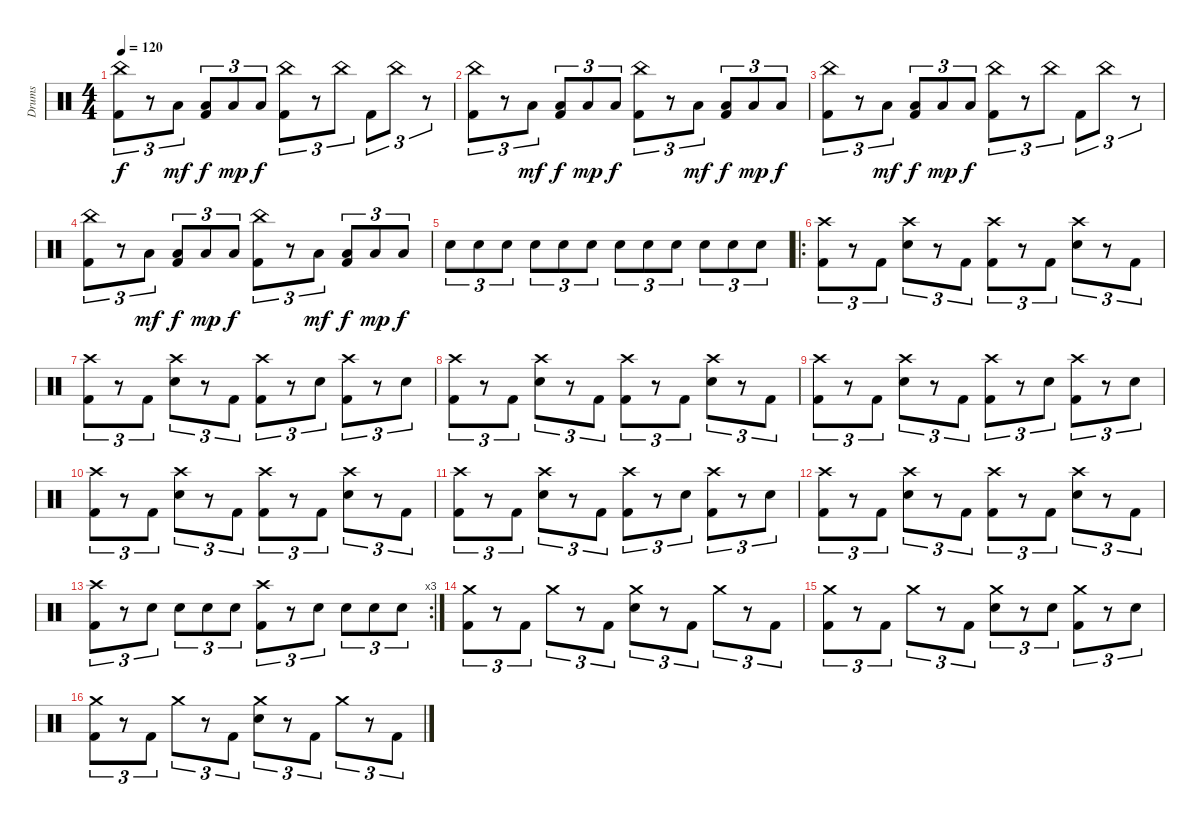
\track ("Drums" "Drums") {instrument percussion}
\staff {score}
\articulation defaults
\ts (4 4)
\tempo 120
\clef neutral
\ks c
("Kick (hit) 2" "China (hit)").8{tu (3 2) dy f} r.8{tu (3 2)} "Low Tom (hit)".8{tu (3 2) dy mf} ("Kick (hit) 2" "Low Tom (hit)").8{tu (3 2) dy f} "Low Tom (hit)".8{tu (3 2) dy mp} "Low Tom (hit)".8{tu (3 2) dy f} ("Kick (hit) 2" "China (hit)").8{tu (3 2)} r.8{tu (3 2)} "China (hit)".8{tu (3 2)} "Kick (hit) 2".8{tu (3 2)} "China (hit)".8{tu (3 2)} r.8{tu (3 2)} |
("Kick (hit) 2" "China (hit)").8{tu (3 2)} r.8{tu (3 2)} "Low Tom (hit)".8{tu (3 2) dy mf} ("Kick (hit) 2" "Low Tom (hit)").8{tu (3 2) dy f} "Low Tom (hit)".8{tu (3 2) dy mp} "Low Tom (hit)".8{tu (3 2) dy f} ("Kick (hit) 2" "China (hit)").8{tu (3 2)} r.8{tu (3 2)} "Low Tom (hit)".8{tu (3 2) dy mf} ("Kick (hit) 2" "Low Tom (hit)").8{tu (3 2) dy f} "Low Tom (hit)".8{tu (3 2) dy mp} "Low Tom (hit)".8{tu (3 2) dy f} |
("Kick (hit) 2" "China (hit)").8{tu (3 2)} r.8{tu (3 2)} "Low Tom (hit)".8{tu (3 2) dy mf} ("Kick (hit) 2" "Low Tom (hit)").8{tu (3 2) dy f} "Low Tom (hit)".8{tu (3 2) dy mp} "Low Tom (hit)".8{tu (3 2) dy f} ("Kick (hit) 2" "China (hit)").8{tu (3 2)} r.8{tu (3 2)} "China (hit)".8{tu (3 2)} "Kick (hit) 2".8{tu (3 2)} "China (hit)".8{tu (3 2)} r.8{tu (3 2)} |
("Kick (hit) 2" "China (hit)").8{tu (3 2)} r.8{tu (3 2)} "Low Tom (hit)".8{tu (3 2) dy mf} ("Kick (hit) 2" "Low Tom (hit)").8{tu (3 2) dy f} "Low Tom (hit)".8{tu (3 2) dy mp} "Low Tom (hit)".8{tu (3 2) dy f} ("Kick (hit) 2" "China (hit)").8{tu (3 2)} r.8{tu (3 2)} "Low Tom (hit)".8{tu (3 2) dy mf} ("Kick (hit) 2" "Low Tom (hit)").8{tu (3 2) dy f} "Low Tom (hit)".8{tu (3 2) dy mp} "Low Tom (hit)".8{tu (3 2) dy f} |
"Electric Snare (hit)".8{tu (3 2)} "Electric Snare (hit)".8{tu (3 2)} "Electric Snare (hit)".8{tu (3 2)} "Electric Snare (hit)".8{tu (3 2)} "Electric Snare (hit)".8{tu (3 2)} "Electric Snare (hit)".8{tu (3 2)} "Electric Snare (hit)".8{tu (3 2)} "Electric Snare (hit)".8{tu (3 2)} "Electric Snare (hit)".8{tu (3 2)} "Electric Snare (hit)".8{tu (3 2)} "Electric Snare (hit)".8{tu (3 2)} "Electric Snare (hit)".8{tu (3 2)} |
\ro
("Kick (hit) 2" "Crash high (hit)").8{tu (3 2)} r.8{tu (3 2)} "Kick (hit) 2".8{tu (3 2)} ("Electric Snare (hit)" "Crash high (hit)").8{tu (3 2)} r.8{tu (3 2)} "Kick (hit) 2".8{tu (3 2)} ("Kick (hit) 2" "Crash high (hit)").8{tu (3 2)} r.8{tu (3 2)} "Kick (hit) 2".8{tu (3 2)} ("Electric Snare (hit)" "Crash high (hit)").8{tu (3 2)} r.8{tu (3 2)} "Kick (hit) 2".8{tu (3 2)} |
("Kick (hit) 2" "Crash high (hit)").8{tu (3 2)} r.8{tu (3 2)} "Kick (hit) 2".8{tu (3 2)} ("Electric Snare (hit)" "Crash high (hit)").8{tu (3 2)} r.8{tu (3 2)} "Kick (hit) 2".8{tu (3 2)} ("Kick (hit) 2" "Crash high (hit)").8{tu (3 2)} r.8{tu (3 2)} "Electric Snare (hit)".8{tu (3 2)} ("Kick (hit) 2" "Crash high (hit)").8{tu (3 2)} r.8{tu (3 2)} "Electric Snare (hit)".8{tu (3 2)} |
("Kick (hit) 2" "Crash high (hit)").8{tu (3 2)} r.8{tu (3 2)} "Kick (hit) 2".8{tu (3 2)} ("Electric Snare (hit)" "Crash high (hit)").8{tu (3 2)} r.8{tu (3 2)} "Kick (hit) 2".8{tu (3 2)} ("Kick (hit) 2" "Crash high (hit)").8{tu (3 2)} r.8{tu (3 2)} "Kick (hit) 2".8{tu (3 2)} ("Electric Snare (hit)" "Crash high (hit)").8{tu (3 2)} r.8{tu (3 2)} "Kick (hit) 2".8{tu (3 2)} |
("Kick (hit) 2" "Crash high (hit)").8{tu (3 2)} r.8{tu (3 2)} "Kick (hit) 2".8{tu (3 2)} ("Electric Snare (hit)" "Crash high (hit)").8{tu (3 2)} r.8{tu (3 2)} "Kick (hit) 2".8{tu (3 2)} ("Kick (hit) 2" "Crash high (hit)").8{tu (3 2)} r.8{tu (3 2)} "Electric Snare (hit)".8{tu (3 2)} ("Kick (hit) 2" "Crash high (hit)").8{tu (3 2)} r.8{tu (3 2)} "Electric Snare (hit)".8{tu (3 2)} |
("Kick (hit) 2" "Crash high (hit)").8{tu (3 2)} r.8{tu (3 2)} "Kick (hit) 2".8{tu (3 2)} ("Electric Snare (hit)" "Crash high (hit)").8{tu (3 2)} r.8{tu (3 2)} "Kick (hit) 2".8{tu (3 2)} ("Kick (hit) 2" "Crash high (hit)").8{tu (3 2)} r.8{tu (3 2)} "Kick (hit) 2".8{tu (3 2)} ("Electric Snare (hit)" "Crash high (hit)").8{tu (3 2)} r.8{tu (3 2)} "Kick (hit) 2".8{tu (3 2)} |
("Kick (hit) 2" "Crash high (hit)").8{tu (3 2)} r.8{tu (3 2)} "Kick (hit) 2".8{tu (3 2)} ("Electric Snare (hit)" "Crash high (hit)").8{tu (3 2)} r.8{tu (3 2)} "Kick (hit) 2".8{tu (3 2)} ("Kick (hit) 2" "Crash high (hit)").8{tu (3 2)} r.8{tu (3 2)} "Electric Snare (hit)".8{tu (3 2)} ("Kick (hit) 2" "Crash high (hit)").8{tu (3 2)} r.8{tu (3 2)} "Electric Snare (hit)".8{tu (3 2)} |
("Kick (hit) 2" "Crash high (hit)").8{tu (3 2)} r.8{tu (3 2)} "Kick (hit) 2".8{tu (3 2)} ("Electric Snare (hit)" "Crash high (hit)").8{tu (3 2)} r.8{tu (3 2)} "Kick (hit) 2".8{tu (3 2)} ("Kick (hit) 2" "Crash high (hit)").8{tu (3 2)} r.8{tu (3 2)} "Kick (hit) 2".8{tu (3 2)} ("Electric Snare (hit)" "Crash high (hit)").8{tu (3 2)} r.8{tu (3 2)} "Kick (hit) 2".8{tu (3 2)} |
\rc 3
("Kick (hit) 2" "Crash high (hit)").8{tu (3 2)} r.8{tu (3 2)} "Electric Snare (hit)".8{tu (3 2)} "Electric Snare (hit)".8{tu (3 2)} "Electric Snare (hit)".8{tu (3 2)} "Electric Snare (hit)".8{tu (3 2)} ("Kick (hit) 2" "Crash high (hit)").8{tu (3 2)} r.8{tu (3 2)} "Electric Snare (hit)".8{tu (3 2)} "Electric Snare (hit)".8{tu (3 2)} "Electric Snare (hit)".8{tu (3 2)} "Electric Snare (hit)".8{tu (3 2)} |
("Crash medium (hit)" "Kick (hit) 2").8{tu (3 2)} r.8{tu (3 2)} "Kick (hit) 2".8{tu (3 2)} "Crash medium (hit)".8{tu (3 2)} r.8{tu (3 2)} "Kick (hit) 2".8{tu (3 2)} ("Crash medium (hit)" "Electric Snare (hit)").8{tu (3 2)} r.8{tu (3 2)} "Kick (hit) 2".8{tu (3 2)} "Crash medium (hit)".8{tu (3 2)} r.8{tu (3 2)} "Kick (hit) 2".8{tu (3 2)} |
("Crash medium (hit)" "Kick (hit) 2").8{tu (3 2)} r.8{tu (3 2)} "Kick (hit) 2".8{tu (3 2)} "Crash medium (hit)".8{tu (3 2)} r.8{tu (3 2)} "Kick (hit) 2".8{tu (3 2)} ("Crash medium (hit)" "Electric Snare (hit)").8{tu (3 2)} r.8{tu (3 2)} "Electric Snare (hit)".8{tu (3 2)} ("Crash medium (hit)" "Kick (hit) 2").8{tu (3 2)} r.8{tu (3 2)} "Electric Snare (hit)".8{tu (3 2)} |
("Crash medium (hit)" "Kick (hit) 2").8{tu (3 2)} r.8{tu (3 2)} "Kick (hit) 2".8{tu (3 2)} "Crash medium (hit)".8{tu (3 2)} r.8{tu (3 2)} "Kick (hit) 2".8{tu (3 2)} ("Crash medium (hit)" "Electric Snare (hit)").8{tu (3 2)} r.8{tu (3 2)} "Kick (hit) 2".8{tu (3 2)} "Crash medium (hit)".8{tu (3 2)} r.8{tu (3 2)} "Kick (hit) 2".8{tu (3 2)}
